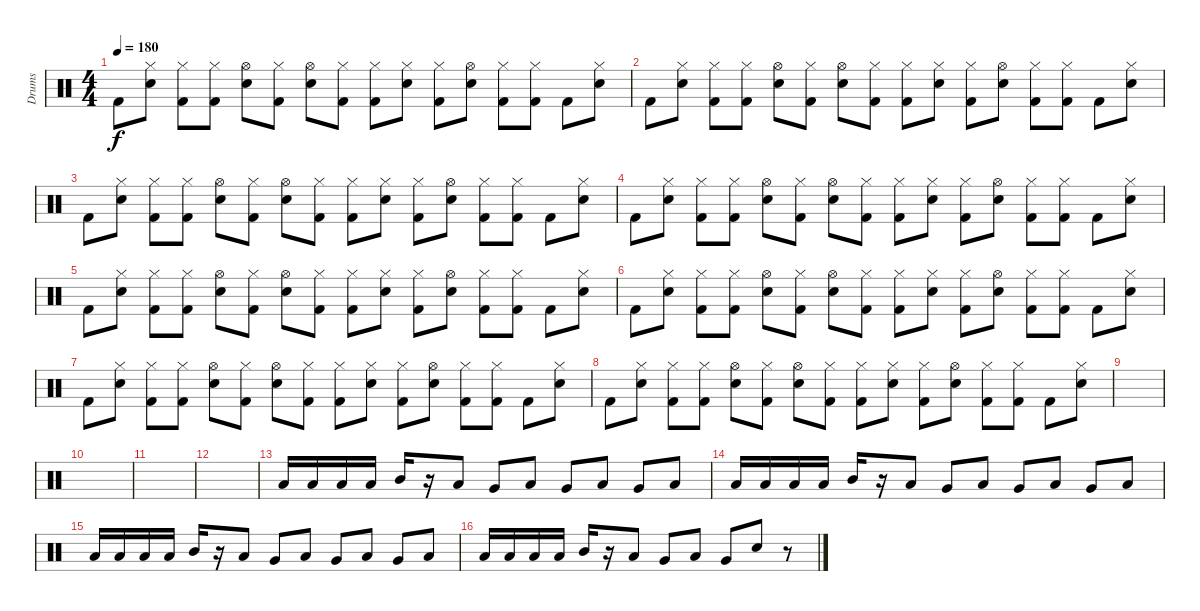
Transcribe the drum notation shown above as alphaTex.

\track ("Drums" "Drums") {instrument percussion}
\staff {score}
\articulation defaults
\ts (4 4)
\tempo 180
\clef neutral
\ks c "Kick (hit) 2".8{dy f}
("Electric Snare (hit)" "Hi-Hat (closed)").8 ("Kick (hit) 2" "Hi-Hat (closed)").8 ("Kick (hit) 2" "Hi-Hat (closed)").8 ("Electric Snare (hit)" "Hi-Hat (open)").8 ("Kick (hit) 2" "Hi-Hat (closed)").8 ("Electric Snare (hit)" "Hi-Hat (open)").8 ("Kick (hit) 2" "Hi-Hat (closed)").8 ("Kick (hit) 2" "Hi-Hat (closed)").8 ("Electric Snare (hit)" "Hi-Hat (closed)").8 ("Kick (hit) 2" "Hi-Hat (closed)").8 ("Electric Snare (hit)" "Hi-Hat (open)").8 ("Kick (hit) 2" "Hi-Hat (closed)").8 ("Kick (hit) 2" "Hi-Hat (closed)").8 "Kick (hit) 2".8 ("Electric Snare (hit)" "Hi-Hat (closed)").8 |
"Kick (hit) 2".8 ("Electric Snare (hit)" "Hi-Hat (closed)").8 ("Kick (hit) 2" "Hi-Hat (closed)").8 ("Kick (hit) 2" "Hi-Hat (closed)").8 ("Electric Snare (hit)" "Hi-Hat (open)").8 ("Kick (hit) 2" "Hi-Hat (closed)").8 ("Electric Snare (hit)" "Hi-Hat (open)").8 ("Kick (hit) 2" "Hi-Hat (closed)").8 ("Kick (hit) 2" "Hi-Hat (closed)").8 ("Electric Snare (hit)" "Hi-Hat (closed)").8 ("Kick (hit) 2" "Hi-Hat (closed)").8 ("Electric Snare (hit)" "Hi-Hat (open)").8 ("Kick (hit) 2" "Hi-Hat (closed)").8 ("Kick (hit) 2" "Hi-Hat (closed)").8 "Kick (hit) 2".8 ("Electric Snare (hit)" "Hi-Hat (closed)").8 |
"Kick (hit) 2".8 ("Electric Snare (hit)" "Hi-Hat (closed)").8 ("Kick (hit) 2" "Hi-Hat (closed)").8 ("Kick (hit) 2" "Hi-Hat (closed)").8 ("Electric Snare (hit)" "Hi-Hat (open)").8 ("Kick (hit) 2" "Hi-Hat (closed)").8 ("Electric Snare (hit)" "Hi-Hat (open)").8 ("Kick (hit) 2" "Hi-Hat (closed)").8 ("Kick (hit) 2" "Hi-Hat (closed)").8 ("Electric Snare (hit)" "Hi-Hat (closed)").8 ("Kick (hit) 2" "Hi-Hat (closed)").8 ("Electric Snare (hit)" "Hi-Hat (open)").8 ("Kick (hit) 2" "Hi-Hat (closed)").8 ("Kick (hit) 2" "Hi-Hat (closed)").8 "Kick (hit) 2".8 ("Electric Snare (hit)" "Hi-Hat (closed)").8 |
"Kick (hit) 2".8 ("Electric Snare (hit)" "Hi-Hat (closed)").8 ("Kick (hit) 2" "Hi-Hat (closed)").8 ("Kick (hit) 2" "Hi-Hat (closed)").8 ("Electric Snare (hit)" "Hi-Hat (open)").8 ("Kick (hit) 2" "Hi-Hat (closed)").8 ("Electric Snare (hit)" "Hi-Hat (open)").8 ("Kick (hit) 2" "Hi-Hat (closed)").8 ("Kick (hit) 2" "Hi-Hat (closed)").8 ("Electric Snare (hit)" "Hi-Hat (closed)").8 ("Kick (hit) 2" "Hi-Hat (closed)").8 ("Electric Snare (hit)" "Hi-Hat (open)").8 ("Kick (hit) 2" "Hi-Hat (closed)").8 ("Kick (hit) 2" "Hi-Hat (closed)").8 "Kick (hit) 2".8 ("Electric Snare (hit)" "Hi-Hat (closed)").8 |
"Kick (hit) 2".8 ("Electric Snare (hit)" "Hi-Hat (closed)").8 ("Kick (hit) 2" "Hi-Hat (closed)").8 ("Kick (hit) 2" "Hi-Hat (closed)").8 ("Electric Snare (hit)" "Hi-Hat (open)").8 ("Kick (hit) 2" "Hi-Hat (closed)").8 ("Electric Snare (hit)" "Hi-Hat (open)").8 ("Kick (hit) 2" "Hi-Hat (closed)").8 ("Kick (hit) 2" "Hi-Hat (closed)").8 ("Electric Snare (hit)" "Hi-Hat (closed)").8 ("Kick (hit) 2" "Hi-Hat (closed)").8 ("Electric Snare (hit)" "Hi-Hat (open)").8 ("Kick (hit) 2" "Hi-Hat (closed)").8 ("Kick (hit) 2" "Hi-Hat (closed)").8 "Kick (hit) 2".8 ("Electric Snare (hit)" "Hi-Hat (closed)").8 |
"Kick (hit) 2".8 ("Electric Snare (hit)" "Hi-Hat (closed)").8 ("Kick (hit) 2" "Hi-Hat (closed)").8 ("Kick (hit) 2" "Hi-Hat (closed)").8 ("Electric Snare (hit)" "Hi-Hat (open)").8 ("Kick (hit) 2" "Hi-Hat (closed)").8 ("Electric Snare (hit)" "Hi-Hat (open)").8 ("Kick (hit) 2" "Hi-Hat (closed)").8 ("Kick (hit) 2" "Hi-Hat (closed)").8 ("Electric Snare (hit)" "Hi-Hat (closed)").8 ("Kick (hit) 2" "Hi-Hat (closed)").8 ("Electric Snare (hit)" "Hi-Hat (open)").8 ("Kick (hit) 2" "Hi-Hat (closed)").8 ("Kick (hit) 2" "Hi-Hat (closed)").8 "Kick (hit) 2".8 ("Electric Snare (hit)" "Hi-Hat (closed)").8 |
"Kick (hit) 2".8 ("Electric Snare (hit)" "Hi-Hat (closed)").8 ("Kick (hit) 2" "Hi-Hat (closed)").8 ("Kick (hit) 2" "Hi-Hat (closed)").8 ("Electric Snare (hit)" "Hi-Hat (open)").8 ("Kick (hit) 2" "Hi-Hat (closed)").8 ("Electric Snare (hit)" "Hi-Hat (open)").8 ("Kick (hit) 2" "Hi-Hat (closed)").8 ("Kick (hit) 2" "Hi-Hat (closed)").8 ("Electric Snare (hit)" "Hi-Hat (closed)").8 ("Kick (hit) 2" "Hi-Hat (closed)").8 ("Electric Snare (hit)" "Hi-Hat (open)").8 ("Kick (hit) 2" "Hi-Hat (closed)").8 ("Kick (hit) 2" "Hi-Hat (closed)").8 "Kick (hit) 2".8 ("Electric Snare (hit)" "Hi-Hat (closed)").8 |
"Kick (hit) 2".8 ("Electric Snare (hit)" "Hi-Hat (closed)").8 ("Kick (hit) 2" "Hi-Hat (closed)").8 ("Kick (hit) 2" "Hi-Hat (closed)").8 ("Electric Snare (hit)" "Hi-Hat (open)").8 ("Kick (hit) 2" "Hi-Hat (closed)").8 ("Electric Snare (hit)" "Hi-Hat (open)").8 ("Kick (hit) 2" "Hi-Hat (closed)").8 ("Kick (hit) 2" "Hi-Hat (closed)").8 ("Electric Snare (hit)" "Hi-Hat (closed)").8 ("Kick (hit) 2" "Hi-Hat (closed)").8 ("Electric Snare (hit)" "Hi-Hat (open)").8 ("Kick (hit) 2" "Hi-Hat (closed)").8 ("Kick (hit) 2" "Hi-Hat (closed)").8 "Kick (hit) 2".8 ("Electric Snare (hit)" "Hi-Hat (closed)").8 |
|
|
|
|
"Low Tom (hit)".16 "Low Tom (hit)".16 "Low Tom (hit)".16 "Low Tom (hit)".16 "Mid Tom (hit)".16 r.16 "Low Tom (hit)".8 "Very Low Tom (hit)".8 "Low Tom (hit)".8 "Very Low Tom (hit)".8 "Low Tom (hit)".8 "Very Low Tom (hit)".8 "Low Tom (hit)".8 |
"Low Tom (hit)".16 "Low Tom (hit)".16 "Low Tom (hit)".16 "Low Tom (hit)".16 "Mid Tom (hit)".16 r.16 "Low Tom (hit)".8 "Very Low Tom (hit)".8 "Low Tom (hit)".8 "Very Low Tom (hit)".8 "Low Tom (hit)".8 "Very Low Tom (hit)".8 "Low Tom (hit)".8 |
"Low Tom (hit)".16 "Low Tom (hit)".16 "Low Tom (hit)".16 "Low Tom (hit)".16 "Mid Tom (hit)".16 r.16 "Low Tom (hit)".8 "Very Low Tom (hit)".8 "Low Tom (hit)".8 "Very Low Tom (hit)".8 "Low Tom (hit)".8 "Very Low Tom (hit)".8 "Low Tom (hit)".8 |
"Low Tom (hit)".16 "Low Tom (hit)".16 "Low Tom (hit)".16 "Low Tom (hit)".16 "Mid Tom (hit)".16 r.16 "Low Tom (hit)".8 "Very Low Tom (hit)".8 "Low Tom (hit)".8 "Very Low Tom (hit)".8 "Electric Snare (hit)".8 r.8
